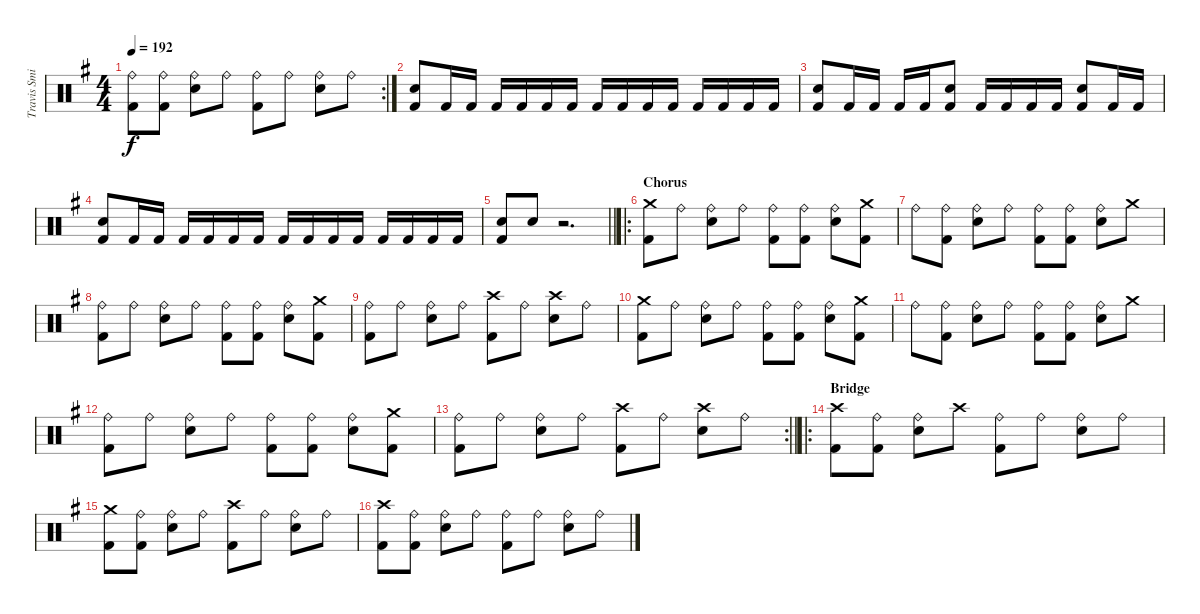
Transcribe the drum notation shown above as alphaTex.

\track ("Travis Smith" "Travis Smi") {instrument percussion}
\staff {score}
\articulation defaults
\rc 2
\ts (4 4)
\tempo 192
\clef neutral
\ks eminor
("Ride (bell)" "Kick (hit) 2").8{dy f} ("Ride (bell)" "Kick (hit) 2").8 ("Ride (bell)" "Snare (hit) 2").8 "Ride (bell)".8 ("Ride (bell)" "Kick (hit) 2").8 "Ride (bell)".8 ("Ride (bell)" "Snare (hit) 2").8 "Ride (bell)".8 |
("Snare (hit) 2" "Kick (hit) 2").8 "Kick (hit) 2".16 "Kick (hit) 2".16 "Kick (hit) 2".16 "Kick (hit) 2".16 "Kick (hit) 2".16 "Kick (hit) 2".16 "Kick (hit) 2".16 "Kick (hit) 2".16 "Kick (hit) 2".16 "Kick (hit) 2".16 "Kick (hit) 2".16 "Kick (hit) 2".16 "Kick (hit) 2".16 "Kick (hit) 2".16 |
("Snare (hit) 2" "Kick (hit) 2").8 "Kick (hit) 2".16 "Kick (hit) 2".16 "Kick (hit) 2".16 "Kick (hit) 2".16 ("Kick (hit) 2" "Snare (hit) 2").8 "Kick (hit) 2".16 "Kick (hit) 2".16 "Kick (hit) 2".16 "Kick (hit) 2".16 ("Kick (hit) 2" "Snare (hit) 2").8 "Kick (hit) 2".16 "Kick (hit) 2".16 |
("Snare (hit) 2" "Kick (hit) 2").8 "Kick (hit) 2".16 "Kick (hit) 2".16 "Kick (hit) 2".16 "Kick (hit) 2".16 "Kick (hit) 2".16 "Kick (hit) 2".16 "Kick (hit) 2".16 "Kick (hit) 2".16 "Kick (hit) 2".16 "Kick (hit) 2".16 "Kick (hit) 2".16 "Kick (hit) 2".16 "Kick (hit) 2".16 "Kick (hit) 2".16 |
\barLineRight lightlight
("Snare (hit) 2" "Kick (hit) 2").8 "Snare (hit) 2".8 r.2{d} |
\ro
\section ("" "Chorus")
("Crash medium (hit)" "Kick (hit) 2").8 "Ride (bell)".8 ("Ride (bell)" "Snare (hit) 2").8 "Ride (bell)".8 ("Ride (bell)" "Kick (hit) 2").8 ("Ride (bell)" "Kick (hit) 2").8 ("Ride (bell)" "Snare (hit) 2").8 ("Crash medium (hit)" "Kick (hit) 2").8 |
"Ride (bell)".8 ("Ride (bell)" "Kick (hit) 2").8 ("Ride (bell)" "Snare (hit) 2").8 "Ride (bell)".8 ("Ride (bell)" "Kick (hit) 2").8 ("Ride (bell)" "Kick (hit) 2").8 ("Ride (bell)" "Snare (hit) 2").8 "Crash medium (hit)".8 |
("Ride (bell)" "Kick (hit) 2").8 "Ride (bell)".8 ("Ride (bell)" "Snare (hit) 2").8 "Ride (bell)".8 ("Ride (bell)" "Kick (hit) 2").8 ("Ride (bell)" "Kick (hit) 2").8 ("Ride (bell)" "Snare (hit) 2").8 ("Crash medium (hit)" "Kick (hit) 2").8 |
("Ride (bell)" "Kick (hit) 2").8 "Ride (bell)".8 ("Ride (bell)" "Snare (hit) 2").8 "Ride (bell)".8 ("Crash high (hit)" "Kick (hit) 2").8 "Ride (bell)".8 ("Crash high (hit)" "Snare (hit) 2").8 "Ride (bell)".8 |
("Crash medium (hit)" "Kick (hit) 2").8 "Ride (bell)".8 ("Ride (bell)" "Snare (hit) 2").8 "Ride (bell)".8 ("Ride (bell)" "Kick (hit) 2").8 ("Ride (bell)" "Kick (hit) 2").8 ("Ride (bell)" "Snare (hit) 2").8 ("Crash medium (hit)" "Kick (hit) 2").8 |
"Ride (bell)".8 ("Ride (bell)" "Kick (hit) 2").8 ("Ride (bell)" "Snare (hit) 2").8 "Ride (bell)".8 ("Ride (bell)" "Kick (hit) 2").8 ("Ride (bell)" "Kick (hit) 2").8 ("Ride (bell)" "Snare (hit) 2").8 "Crash medium (hit)".8 |
("Ride (bell)" "Kick (hit) 2").8 "Ride (bell)".8 ("Ride (bell)" "Snare (hit) 2").8 "Ride (bell)".8 ("Ride (bell)" "Kick (hit) 2").8 ("Ride (bell)" "Kick (hit) 2").8 ("Ride (bell)" "Snare (hit) 2").8 ("Crash medium (hit)" "Kick (hit) 2").8 |
\rc 2
\barLineRight lightlight
("Ride (bell)" "Kick (hit) 2").8 "Ride (bell)".8 ("Ride (bell)" "Snare (hit) 2").8 "Ride (bell)".8 ("Crash high (hit)" "Kick (hit) 2").8 "Ride (bell)".8 ("Crash high (hit)" "Snare (hit) 2").8 "Ride (bell)".8 |
\ro
\section ("" "Bridge")
("Crash high (hit)" "Kick (hit) 2").8 ("Ride (bell)" "Kick (hit) 2").8 ("Ride (bell)" "Snare (hit) 2").8 "Crash high (hit)".8 ("Ride (bell)" "Kick (hit) 2").8 "Ride (bell)".8 ("Ride (bell)" "Snare (hit) 2").8 "Ride (bell)".8 |
("Crash medium (hit)" "Kick (hit) 2").8 ("Ride (bell)" "Kick (hit) 2").8 ("Ride (bell)" "Snare (hit) 2").8 "Ride (bell)".8 ("Crash high (hit)" "Kick (hit) 2").8 "Ride (bell)".8 ("Ride (bell)" "Snare (hit) 2").8 "Ride (bell)".8 |
("Crash high (hit)" "Kick (hit) 2").8 ("Ride (bell)" "Kick (hit) 2").8 ("Ride (bell)" "Snare (hit) 2").8 "Ride (bell)".8 ("Ride (bell)" "Kick (hit) 2").8 "Ride (bell)".8 ("Ride (bell)" "Snare (hit) 2").8 "Ride (bell)".8
